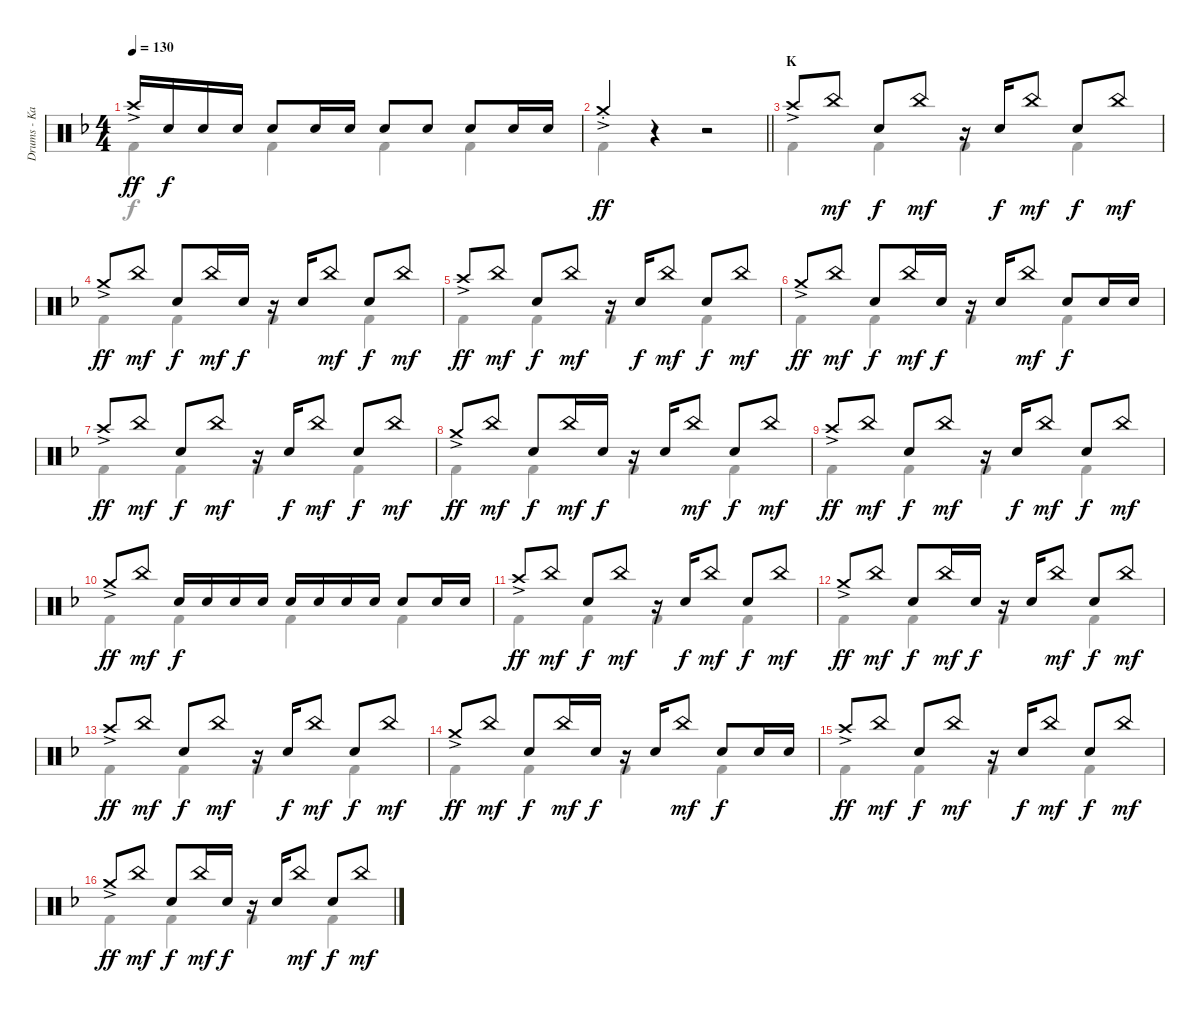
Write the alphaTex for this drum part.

\track ("Drums - Kai" "Drums - Ka") {instrument percussion}
\staff {score}
\articulation defaults
\voice
\ts (4 4)
\tempo 130
\clef neutral
\ks f "Crash high (hit)"{ac}.16{dy ff} "Electric Snare (hit)".16{dy f} "Electric Snare (hit)".16 "Electric Snare (hit)".16 "Electric Snare (hit)".8 "Electric Snare (hit)".16 "Electric Snare (hit)".16 "Electric Snare (hit)".8 "Electric Snare (hit)".8 "Electric Snare (hit)".8 "Electric Snare (hit)".16 "Electric Snare (hit)".16
|
\barLineRight lightlight "Crash medium (hit)"{ac st}.4{dy ff}
r.4 r.2 |
\section ("" "K")
"Crash high (hit)"{ac}.8 "China (hit)".8{dy mf} "Electric Snare (hit)".8{dy f} "China (hit)".8{dy mf} r.16 "Electric Snare (hit)".16{dy f} "China (hit)".8{dy mf} "Electric Snare (hit)".8{dy f} "China (hit)".8{dy mf} |
"Crash medium (hit)"{ac}.8{dy ff} "China (hit)".8{dy mf} "Electric Snare (hit)".8{dy f} "China (hit)".16{dy mf} "Electric Snare (hit)".16{dy f} r.16 "Electric Snare (hit)".16 "China (hit)".8{dy mf} "Electric Snare (hit)".8{dy f} "China (hit)".8{dy mf} |
"Crash high (hit)"{ac}.8{dy ff} "China (hit)".8{dy mf} "Electric Snare (hit)".8{dy f} "China (hit)".8{dy mf} r.16 "Electric Snare (hit)".16{dy f} "China (hit)".8{dy mf} "Electric Snare (hit)".8{dy f} "China (hit)".8{dy mf} |
"Crash medium (hit)"{ac}.8{dy ff} "China (hit)".8{dy mf} "Electric Snare (hit)".8{dy f} "China (hit)".16{dy mf} "Electric Snare (hit)".16{dy f} r.16 "Electric Snare (hit)".16 "China (hit)".8{dy mf} "Electric Snare (hit)".8{dy f} "Electric Snare (hit)".16 "Electric Snare (hit)".16 |
"Crash high (hit)"{ac}.8{dy ff} "China (hit)".8{dy mf} "Electric Snare (hit)".8{dy f} "China (hit)".8{dy mf} r.16 "Electric Snare (hit)".16{dy f} "China (hit)".8{dy mf} "Electric Snare (hit)".8{dy f} "China (hit)".8{dy mf} |
"Crash medium (hit)"{ac}.8{dy ff} "China (hit)".8{dy mf} "Electric Snare (hit)".8{dy f} "China (hit)".16{dy mf} "Electric Snare (hit)".16{dy f} r.16 "Electric Snare (hit)".16 "China (hit)".8{dy mf} "Electric Snare (hit)".8{dy f} "China (hit)".8{dy mf} |
"Crash high (hit)"{ac}.8{dy ff} "China (hit)".8{dy mf} "Electric Snare (hit)".8{dy f} "China (hit)".8{dy mf} r.16 "Electric Snare (hit)".16{dy f} "China (hit)".8{dy mf} "Electric Snare (hit)".8{dy f} "China (hit)".8{dy mf} |
"Crash medium (hit)"{ac}.8{dy ff} "China (hit)".8{dy mf} "Electric Snare (hit)".16{dy f} "Electric Snare (hit)".16 "Electric Snare (hit)".16 "Electric Snare (hit)".16 "Electric Snare (hit)".16 "Electric Snare (hit)".16 "Electric Snare (hit)".16 "Electric Snare (hit)".16 "Electric Snare (hit)".8 "Electric Snare (hit)".16 "Electric Snare (hit)".16 |
"Crash high (hit)"{ac}.8{dy ff} "China (hit)".8{dy mf} "Electric Snare (hit)".8{dy f} "China (hit)".8{dy mf} r.16 "Electric Snare (hit)".16{dy f} "China (hit)".8{dy mf} "Electric Snare (hit)".8{dy f} "China (hit)".8{dy mf} |
"Crash medium (hit)"{ac}.8{dy ff} "China (hit)".8{dy mf} "Electric Snare (hit)".8{dy f} "China (hit)".16{dy mf} "Electric Snare (hit)".16{dy f} r.16 "Electric Snare (hit)".16 "China (hit)".8{dy mf} "Electric Snare (hit)".8{dy f} "China (hit)".8{dy mf} |
"Crash high (hit)"{ac}.8{dy ff} "China (hit)".8{dy mf} "Electric Snare (hit)".8{dy f} "China (hit)".8{dy mf} r.16 "Electric Snare (hit)".16{dy f} "China (hit)".8{dy mf} "Electric Snare (hit)".8{dy f} "China (hit)".8{dy mf} |
"Crash medium (hit)"{ac}.8{dy ff} "China (hit)".8{dy mf} "Electric Snare (hit)".8{dy f} "China (hit)".16{dy mf} "Electric Snare (hit)".16{dy f} r.16 "Electric Snare (hit)".16 "China (hit)".8{dy mf} "Electric Snare (hit)".8{dy f} "Electric Snare (hit)".16 "Electric Snare (hit)".16 |
"Crash high (hit)"{ac}.8{dy ff} "China (hit)".8{dy mf} "Electric Snare (hit)".8{dy f} "China (hit)".8{dy mf} r.16 "Electric Snare (hit)".16{dy f} "China (hit)".8{dy mf} "Electric Snare (hit)".8{dy f} "China (hit)".8{dy mf} |
"Crash medium (hit)"{ac}.8{dy ff} "China (hit)".8{dy mf} "Electric Snare (hit)".8{dy f} "China (hit)".16{dy mf} "Electric Snare (hit)".16{dy f} r.16 "Electric Snare (hit)".16 "China (hit)".8{dy mf} "Electric Snare (hit)".8{dy f} "China (hit)".8{dy mf}
\voice
\clef neutral
\ottava regular
\simile none
\ks f "Kick (hit) 2".4{dy f} "Kick (hit) 2".4 "Kick (hit) 2".4 "Kick (hit) 2".4
|
\barLineRight lightlight "Kick (hit) 2".4
r.4 r.2 |
"Kick (hit) 2".4 "Kick (hit) 2".4 "Kick (hit) 2".4 "Kick (hit) 2".4 |
"Kick (hit) 2".4 "Kick (hit) 2".4 "Kick (hit) 2".4 "Kick (hit) 2".4 |
"Kick (hit) 2".4 "Kick (hit) 2".4 "Kick (hit) 2".4 "Kick (hit) 2".4 |
"Kick (hit) 2".4 "Kick (hit) 2".4 "Kick (hit) 2".4 "Kick (hit) 2".4 |
"Kick (hit) 2".4 "Kick (hit) 2".4 "Kick (hit) 2".4 "Kick (hit) 2".4 |
"Kick (hit) 2".4 "Kick (hit) 2".4 "Kick (hit) 2".4 "Kick (hit) 2".4 |
"Kick (hit) 2".4 "Kick (hit) 2".4 "Kick (hit) 2".4 "Kick (hit) 2".4 |
"Kick (hit) 2".4 "Kick (hit) 2".4 "Kick (hit) 2".4 "Kick (hit) 2".4 |
"Kick (hit) 2".4 "Kick (hit) 2".4 "Kick (hit) 2".4 "Kick (hit) 2".4 |
"Kick (hit) 2".4 "Kick (hit) 2".4 "Kick (hit) 2".4 "Kick (hit) 2".4 |
"Kick (hit) 2".4 "Kick (hit) 2".4 "Kick (hit) 2".4 "Kick (hit) 2".4 |
"Kick (hit) 2".4 "Kick (hit) 2".4 "Kick (hit) 2".4 "Kick (hit) 2".4 |
"Kick (hit) 2".4 "Kick (hit) 2".4 "Kick (hit) 2".4 "Kick (hit) 2".4 |
"Kick (hit) 2".4 "Kick (hit) 2".4 "Kick (hit) 2".4 "Kick (hit) 2".4
